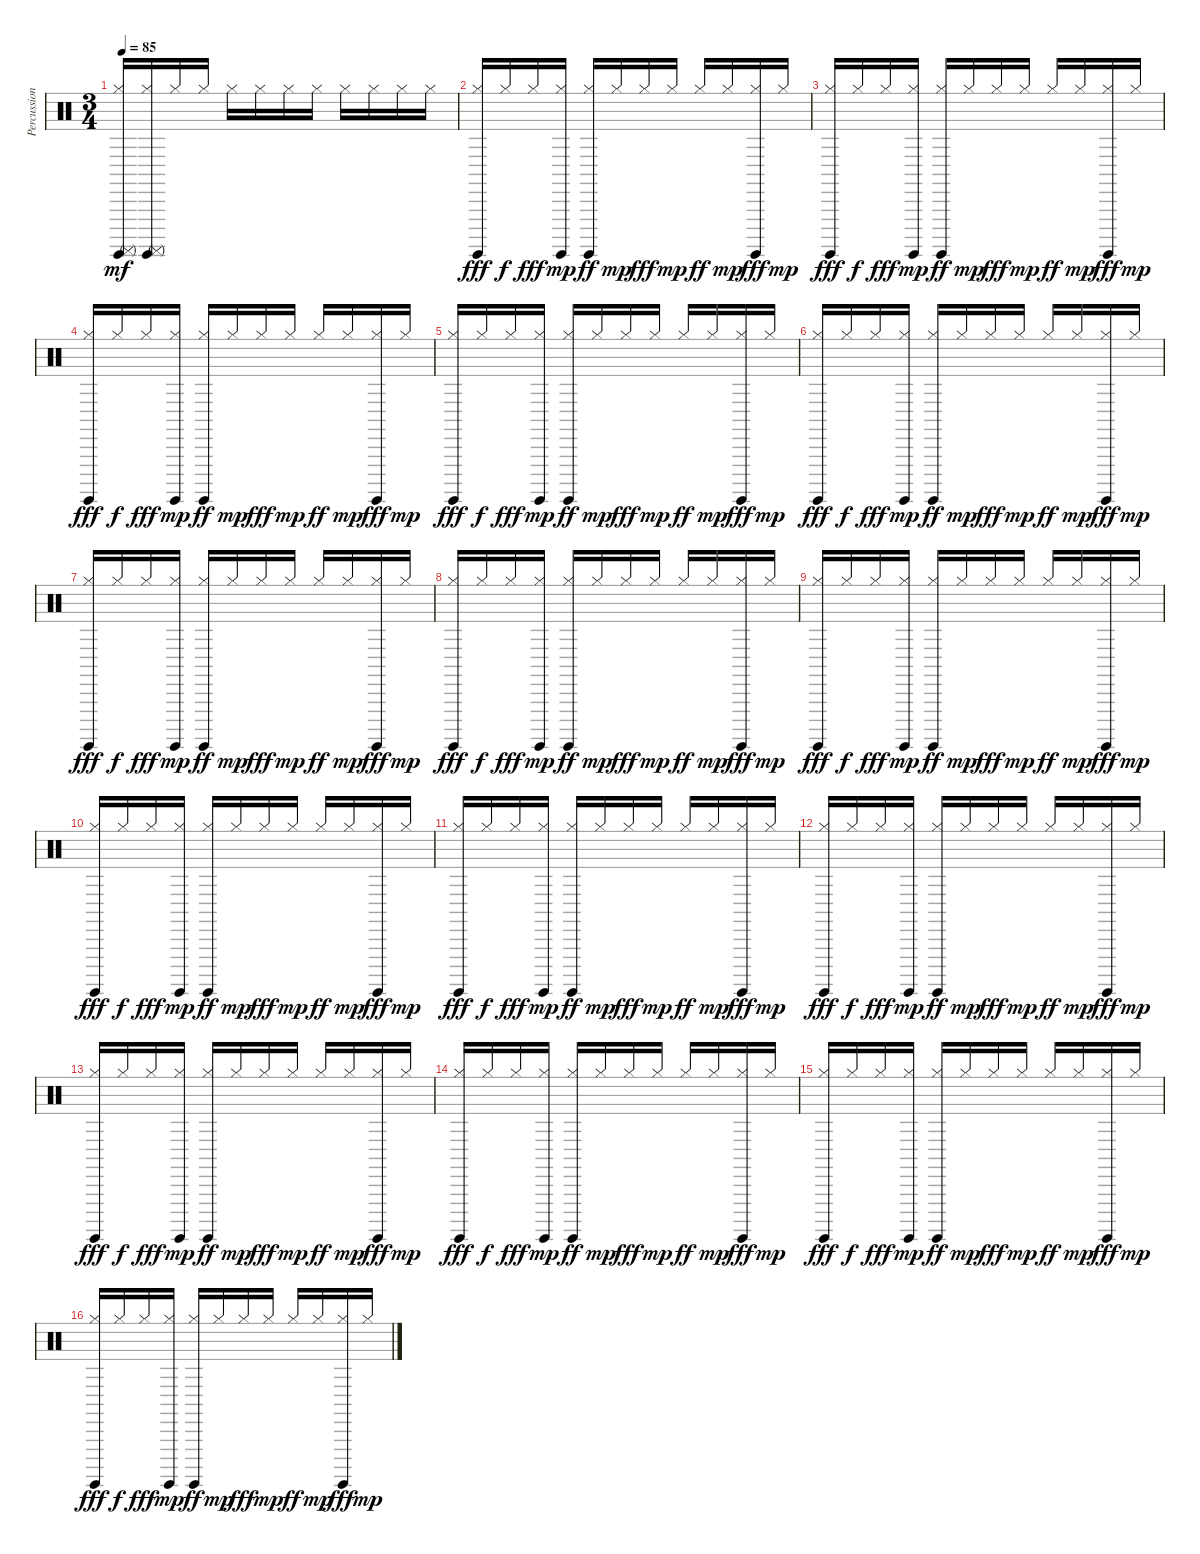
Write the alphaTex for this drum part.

\track ("Percussion" "Percussion") {instrument percussion}
\staff {score}
\articulation defaults
\ts (3 4)
\tempo 85
\clef neutral
\ks c
("Surdo (hit)" "Surdo (mute)" "Hi-Hat (closed)").16{dy mf} ("Surdo (hit)" "Surdo (mute)" "Hi-Hat (closed)").16 "Hi-Hat (closed)".16 "Hi-Hat (closed)".16 "Hi-Hat (closed)".16{volume 4} "Hi-Hat (closed)".16 "Hi-Hat (closed)".16 "Hi-Hat (closed)".16 "Hi-Hat (closed)".16 "Hi-Hat (closed)".16 "Hi-Hat (closed)".16 "Hi-Hat (closed)".16 |
("Surdo (hit)" "Hi-Hat (closed)").16{dy fff volume 7} "Hi-Hat (closed)".16{dy f} "Hi-Hat (closed)".16{dy fff} ("Surdo (hit)" "Hi-Hat (closed)").16{dy mp} ("Surdo (hit)" "Hi-Hat (closed)").16{dy ff} "Hi-Hat (closed)".16{dy mp} "Hi-Hat (closed)".16{dy fff} "Hi-Hat (closed)".16{dy mp} "Hi-Hat (closed)".16{dy ff} "Hi-Hat (closed)".16{dy mp} ("Surdo (hit)" "Hi-Hat (closed)").16{dy fff} "Hi-Hat (closed)".16{dy mp} |
("Surdo (hit)" "Hi-Hat (closed)").16{dy fff} "Hi-Hat (closed)".16{dy f} "Hi-Hat (closed)".16{dy fff} ("Surdo (hit)" "Hi-Hat (closed)").16{dy mp} ("Surdo (hit)" "Hi-Hat (closed)").16{dy ff} "Hi-Hat (closed)".16{dy mp} "Hi-Hat (closed)".16{dy fff} "Hi-Hat (closed)".16{dy mp} "Hi-Hat (closed)".16{dy ff} "Hi-Hat (closed)".16{dy mp} ("Surdo (hit)" "Hi-Hat (closed)").16{dy fff} "Hi-Hat (closed)".16{dy mp} |
("Surdo (hit)" "Hi-Hat (closed)").16{dy fff} "Hi-Hat (closed)".16{dy f} "Hi-Hat (closed)".16{dy fff} ("Surdo (hit)" "Hi-Hat (closed)").16{dy mp} ("Surdo (hit)" "Hi-Hat (closed)").16{dy ff} "Hi-Hat (closed)".16{dy mp} "Hi-Hat (closed)".16{dy fff} "Hi-Hat (closed)".16{dy mp} "Hi-Hat (closed)".16{dy ff} "Hi-Hat (closed)".16{dy mp} ("Surdo (hit)" "Hi-Hat (closed)").16{dy fff} "Hi-Hat (closed)".16{dy mp} |
("Surdo (hit)" "Hi-Hat (closed)").16{dy fff} "Hi-Hat (closed)".16{dy f} "Hi-Hat (closed)".16{dy fff} ("Surdo (hit)" "Hi-Hat (closed)").16{dy mp} ("Surdo (hit)" "Hi-Hat (closed)").16{dy ff} "Hi-Hat (closed)".16{dy mp} "Hi-Hat (closed)".16{dy fff} "Hi-Hat (closed)".16{dy mp} "Hi-Hat (closed)".16{dy ff} "Hi-Hat (closed)".16{dy mp} ("Surdo (hit)" "Hi-Hat (closed)").16{dy fff} "Hi-Hat (closed)".16{dy mp} |
("Surdo (hit)" "Hi-Hat (closed)").16{dy fff volume 7} "Hi-Hat (closed)".16{dy f} "Hi-Hat (closed)".16{dy fff} ("Surdo (hit)" "Hi-Hat (closed)").16{dy mp} ("Surdo (hit)" "Hi-Hat (closed)").16{dy ff} "Hi-Hat (closed)".16{dy mp} "Hi-Hat (closed)".16{dy fff} "Hi-Hat (closed)".16{dy mp} "Hi-Hat (closed)".16{dy ff} "Hi-Hat (closed)".16{dy mp} ("Surdo (hit)" "Hi-Hat (closed)").16{dy fff} "Hi-Hat (closed)".16{dy mp} |
("Surdo (hit)" "Hi-Hat (closed)").16{dy fff} "Hi-Hat (closed)".16{dy f} "Hi-Hat (closed)".16{dy fff} ("Surdo (hit)" "Hi-Hat (closed)").16{dy mp} ("Surdo (hit)" "Hi-Hat (closed)").16{dy ff} "Hi-Hat (closed)".16{dy mp} "Hi-Hat (closed)".16{dy fff} "Hi-Hat (closed)".16{dy mp} "Hi-Hat (closed)".16{dy ff} "Hi-Hat (closed)".16{dy mp} ("Surdo (hit)" "Hi-Hat (closed)").16{dy fff} "Hi-Hat (closed)".16{dy mp} |
("Surdo (hit)" "Hi-Hat (closed)").16{dy fff} "Hi-Hat (closed)".16{dy f} "Hi-Hat (closed)".16{dy fff} ("Surdo (hit)" "Hi-Hat (closed)").16{dy mp} ("Surdo (hit)" "Hi-Hat (closed)").16{dy ff} "Hi-Hat (closed)".16{dy mp} "Hi-Hat (closed)".16{dy fff} "Hi-Hat (closed)".16{dy mp} "Hi-Hat (closed)".16{dy ff} "Hi-Hat (closed)".16{dy mp} ("Surdo (hit)" "Hi-Hat (closed)").16{dy fff} "Hi-Hat (closed)".16{dy mp} |
("Surdo (hit)" "Hi-Hat (closed)").16{dy fff} "Hi-Hat (closed)".16{dy f} "Hi-Hat (closed)".16{dy fff} ("Surdo (hit)" "Hi-Hat (closed)").16{dy mp} ("Surdo (hit)" "Hi-Hat (closed)").16{dy ff} "Hi-Hat (closed)".16{dy mp} "Hi-Hat (closed)".16{dy fff} "Hi-Hat (closed)".16{dy mp} "Hi-Hat (closed)".16{dy ff} "Hi-Hat (closed)".16{dy mp} ("Surdo (hit)" "Hi-Hat (closed)").16{dy fff} "Hi-Hat (closed)".16{dy mp} |
("Surdo (hit)" "Hi-Hat (closed)").16{dy fff volume 7} "Hi-Hat (closed)".16{dy f} "Hi-Hat (closed)".16{dy fff} ("Surdo (hit)" "Hi-Hat (closed)").16{dy mp} ("Surdo (hit)" "Hi-Hat (closed)").16{dy ff} "Hi-Hat (closed)".16{dy mp} "Hi-Hat (closed)".16{dy fff} "Hi-Hat (closed)".16{dy mp} "Hi-Hat (closed)".16{dy ff} "Hi-Hat (closed)".16{dy mp} ("Surdo (hit)" "Hi-Hat (closed)").16{dy fff} "Hi-Hat (closed)".16{dy mp} |
("Surdo (hit)" "Hi-Hat (closed)").16{dy fff} "Hi-Hat (closed)".16{dy f} "Hi-Hat (closed)".16{dy fff} ("Surdo (hit)" "Hi-Hat (closed)").16{dy mp} ("Surdo (hit)" "Hi-Hat (closed)").16{dy ff} "Hi-Hat (closed)".16{dy mp} "Hi-Hat (closed)".16{dy fff} "Hi-Hat (closed)".16{dy mp} "Hi-Hat (closed)".16{dy ff} "Hi-Hat (closed)".16{dy mp} ("Surdo (hit)" "Hi-Hat (closed)").16{dy fff} "Hi-Hat (closed)".16{dy mp} |
("Surdo (hit)" "Hi-Hat (closed)").16{dy fff} "Hi-Hat (closed)".16{dy f} "Hi-Hat (closed)".16{dy fff} ("Surdo (hit)" "Hi-Hat (closed)").16{dy mp} ("Surdo (hit)" "Hi-Hat (closed)").16{dy ff} "Hi-Hat (closed)".16{dy mp} "Hi-Hat (closed)".16{dy fff} "Hi-Hat (closed)".16{dy mp} "Hi-Hat (closed)".16{dy ff} "Hi-Hat (closed)".16{dy mp} ("Surdo (hit)" "Hi-Hat (closed)").16{dy fff} "Hi-Hat (closed)".16{dy mp} |
("Surdo (hit)" "Hi-Hat (closed)").16{dy fff} "Hi-Hat (closed)".16{dy f} "Hi-Hat (closed)".16{dy fff} ("Surdo (hit)" "Hi-Hat (closed)").16{dy mp} ("Surdo (hit)" "Hi-Hat (closed)").16{dy ff} "Hi-Hat (closed)".16{dy mp} "Hi-Hat (closed)".16{dy fff} "Hi-Hat (closed)".16{dy mp} "Hi-Hat (closed)".16{dy ff} "Hi-Hat (closed)".16{dy mp} ("Surdo (hit)" "Hi-Hat (closed)").16{dy fff} "Hi-Hat (closed)".16{dy mp} |
("Surdo (hit)" "Hi-Hat (closed)").16{dy fff volume 7} "Hi-Hat (closed)".16{dy f} "Hi-Hat (closed)".16{dy fff} ("Surdo (hit)" "Hi-Hat (closed)").16{dy mp} ("Surdo (hit)" "Hi-Hat (closed)").16{dy ff} "Hi-Hat (closed)".16{dy mp} "Hi-Hat (closed)".16{dy fff} "Hi-Hat (closed)".16{dy mp} "Hi-Hat (closed)".16{dy ff} "Hi-Hat (closed)".16{dy mp} ("Surdo (hit)" "Hi-Hat (closed)").16{dy fff} "Hi-Hat (closed)".16{dy mp} |
("Surdo (hit)" "Hi-Hat (closed)").16{dy fff} "Hi-Hat (closed)".16{dy f} "Hi-Hat (closed)".16{dy fff} ("Surdo (hit)" "Hi-Hat (closed)").16{dy mp} ("Surdo (hit)" "Hi-Hat (closed)").16{dy ff} "Hi-Hat (closed)".16{dy mp} "Hi-Hat (closed)".16{dy fff} "Hi-Hat (closed)".16{dy mp} "Hi-Hat (closed)".16{dy ff} "Hi-Hat (closed)".16{dy mp} ("Surdo (hit)" "Hi-Hat (closed)").16{dy fff} "Hi-Hat (closed)".16{dy mp} |
("Surdo (hit)" "Hi-Hat (closed)").16{dy fff} "Hi-Hat (closed)".16{dy f} "Hi-Hat (closed)".16{dy fff} ("Surdo (hit)" "Hi-Hat (closed)").16{dy mp} ("Surdo (hit)" "Hi-Hat (closed)").16{dy ff} "Hi-Hat (closed)".16{dy mp} "Hi-Hat (closed)".16{dy fff} "Hi-Hat (closed)".16{dy mp} "Hi-Hat (closed)".16{dy ff} "Hi-Hat (closed)".16{dy mp} ("Surdo (hit)" "Hi-Hat (closed)").16{dy fff} "Hi-Hat (closed)".16{dy mp}
